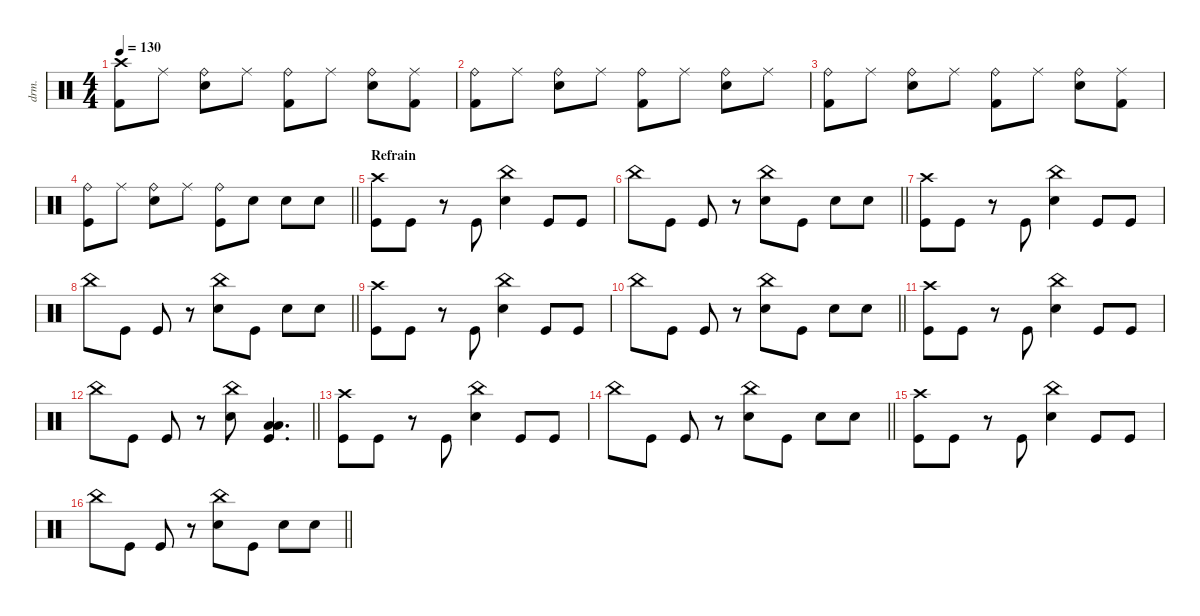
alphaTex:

\defaultSystemsLayout 4
\hideDynamics
\bracketExtendMode nobrackets
\otherSystemsTrackNameOrientation horizontal
\track ("Manouche" "drm.") {instrument percussion}
\staff {score}
\articulation defaults
\ts (4 4)
\tempo 130
\clef neutral
\ks c
("Crash high (hit)" "Kick (hit) 2").8{dy f beam Down} "Ride (middle)".8{dy mf beam Down} ("Ride (bell)" "Snare (hit) 2").8{dy f beam Down} "Ride (middle)".8{dy mf beam Down} ("Ride (bell)" "Kick (hit) 2").8{dy f beam Down} "Ride (middle)".8{dy mf beam Down} ("Ride (bell)" "Snare (hit) 2").8{dy f beam Down} ("Ride (middle)" "Kick (hit) 2").8{dy mf beam Down} |
("Ride (bell)" "Kick (hit) 2").8{dy f beam Down} "Ride (middle)".8{dy mf beam Down} ("Ride (bell)" "Snare (hit) 2").8{dy f beam Down} "Ride (middle)".8{dy mf beam Down} ("Ride (bell)" "Kick (hit) 2").8{dy f beam Down} "Ride (middle)".8{dy mf beam Down} ("Ride (bell)" "Snare (hit) 2").8{dy f beam Down} "Ride (middle)".8{dy mf beam Down} |
("Ride (bell)" "Kick (hit) 2").8{dy f beam Down} "Ride (middle)".8{dy mf beam Down} ("Ride (bell)" "Snare (hit) 2").8{dy f beam Down} "Ride (middle)".8{dy mf beam Down} ("Ride (bell)" "Kick (hit) 2").8{dy f beam Down} "Ride (middle)".8{dy mf beam Down} ("Ride (bell)" "Snare (hit) 2").8{dy f beam Down} ("Ride (middle)" "Kick (hit) 2").8{dy mf beam Down} |
\barLineRight lightlight
("Ride (bell)" "Kick (hit)").8{dy f beam Down} "Ride (middle)".8{dy mf beam Down} ("Ride (bell)" "Snare (hit) 2").8{dy f beam Down} "Ride (middle)".8{dy mf beam Down} ("Ride (bell)" "Kick (hit)").8{dy f beam Down} "Snare (hit) 2".8{beam Down} "Snare (hit) 2".8{beam Down} "Snare (hit) 2".8{beam Down} |
\section ("" "Refrain")
("Crash high (hit)" "Kick (hit)").8{beam Down} "Kick (hit)".8{beam Down} r.8{beam Down} "Kick (hit)".8{beam Up} ("China (hit)" "Snare (hit) 2").4{beam Down} "Kick (hit)".8{beam Up} "Kick (hit)".8{beam Up} |
\barLineRight lightlight "China (hit)".8{beam Down} "Kick (hit)".8{beam Down} "Kick (hit)".8{beam Up}
r.8{beam Up} ("China (hit)" "Snare (hit) 2").8{beam Down} "Kick (hit)".8{beam Down} "Snare (hit) 2".8{beam Down} "Snare (hit) 2".8{beam Down} |
("Crash high (hit)" "Kick (hit)").8{beam Down} "Kick (hit)".8{beam Down} r.8{beam Down} "Kick (hit)".8{beam Up} ("China (hit)" "Snare (hit) 2").4{beam Down} "Kick (hit)".8{beam Up} "Kick (hit)".8{beam Up} |
\barLineRight lightlight "China (hit)".8{beam Down} "Kick (hit)".8{beam Down} "Kick (hit)".8{beam Up}
r.8{beam Up} ("China (hit)" "Snare (hit) 2").8{beam Down} "Kick (hit)".8{beam Down} "Snare (hit) 2".8{beam Down} "Snare (hit) 2".8{beam Down} |
("Crash high (hit)" "Kick (hit)").8{beam Down} "Kick (hit)".8{beam Down} r.8{beam Down} "Kick (hit)".8{beam Up} ("China (hit)" "Snare (hit) 2").4{beam Down} "Kick (hit)".8{beam Up} "Kick (hit)".8{beam Up} |
\barLineRight lightlight "China (hit)".8{beam Down} "Kick (hit)".8{beam Down} "Kick (hit)".8{beam Up}
r.8{beam Up} ("China (hit)" "Snare (hit) 2").8{beam Down} "Kick (hit)".8{beam Down} "Snare (hit) 2".8{beam Down} "Snare (hit) 2".8{beam Down} |
("Crash high (hit)" "Kick (hit)").8{beam Down} "Kick (hit)".8{beam Down} r.8{beam Down} "Kick (hit)".8{beam Up} ("China (hit)" "Snare (hit) 2").4{beam Down} "Kick (hit)".8{beam Up} "Kick (hit)".8{beam Up} |
\barLineRight lightlight "China (hit)".8{beam Down} "Kick (hit)".8{beam Down} "Kick (hit)".8{beam Up}
r.8{beam Up} ("China (hit)" "Snare (hit) 2").8{beam Down} ("Low Tom (hit)" "Kick (hit)" "Low Floor Tom (hit)").4{d dy ff beam Up} |
("Crash high (hit)" "Kick (hit)").8{dy f beam Down} "Kick (hit)".8{beam Down} r.8{beam Down} "Kick (hit)".8{beam Up} ("China (hit)" "Snare (hit) 2").4{beam Down} "Kick (hit)".8{beam Up} "Kick (hit)".8{beam Up} |
\barLineRight lightlight "China (hit)".8{beam Down} "Kick (hit)".8{beam Down} "Kick (hit)".8{beam Up}
r.8{beam Up} ("China (hit)" "Snare (hit) 2").8{beam Down} "Kick (hit)".8{beam Down} "Snare (hit) 2".8{beam Down} "Snare (hit) 2".8{beam Down} |
("Crash high (hit)" "Kick (hit)").8{beam Down} "Kick (hit)".8{beam Down} r.8{beam Down} "Kick (hit)".8{beam Up} ("China (hit)" "Snare (hit) 2").4{beam Down} "Kick (hit)".8{beam Up} "Kick (hit)".8{beam Up} |
\barLineRight lightlight "China (hit)".8{beam Down} "Kick (hit)".8{beam Down} "Kick (hit)".8{beam Up}
r.8{beam Up} ("China (hit)" "Snare (hit) 2").8{beam Down} "Kick (hit)".8{beam Down} "Snare (hit) 2".8{beam Down} "Snare (hit) 2".8{beam Down}
